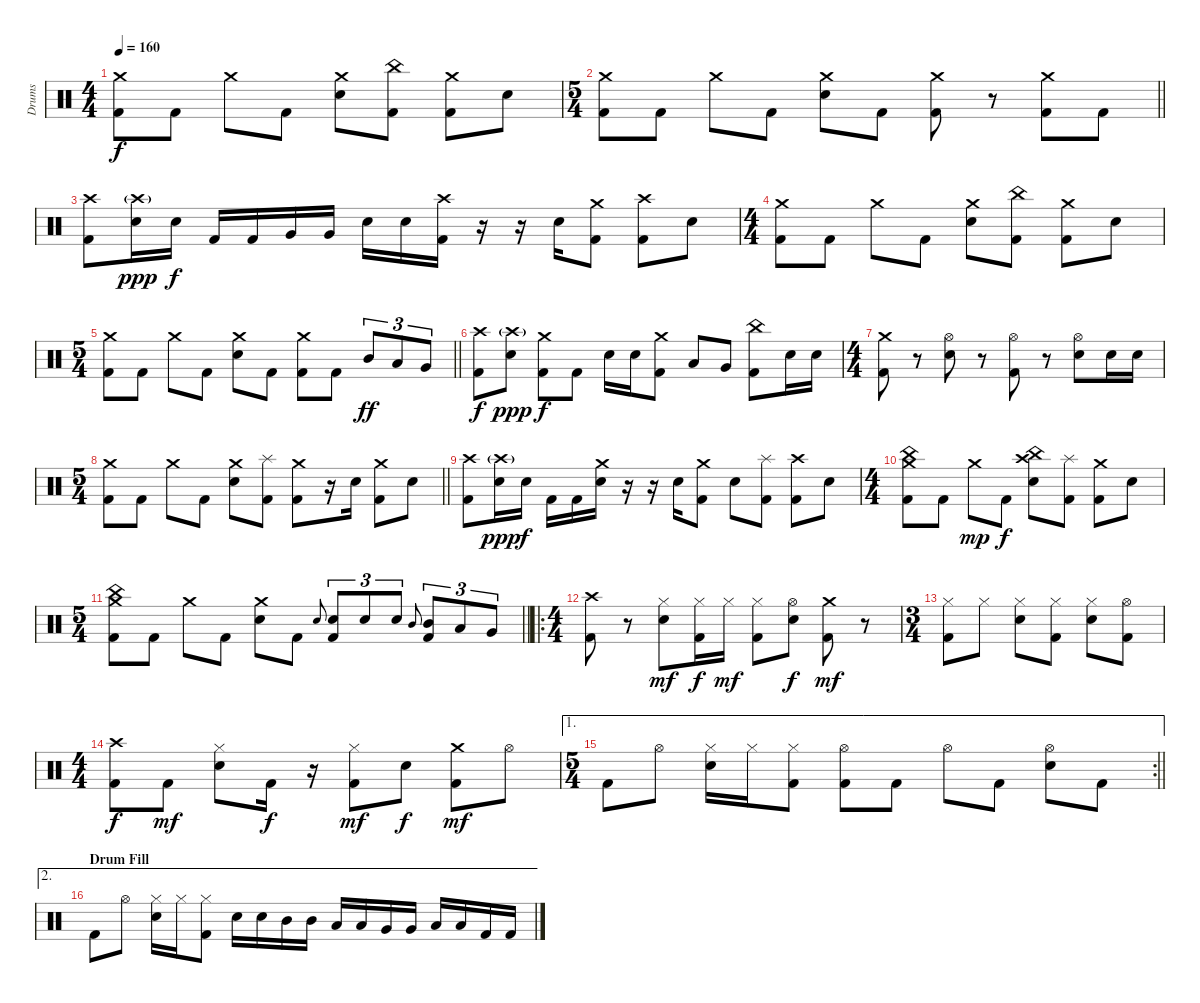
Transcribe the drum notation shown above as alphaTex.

\track ("Drums" "Drums") {instrument percussion}
\staff {score}
\articulation defaults
\ts (4 4)
\tempo 160
\clef neutral
\ks c
("Crash medium (hit)" "Kick (hit) 2").8{dy f} "Kick (hit) 2".8 "Crash medium (hit)".8 "Kick (hit) 2".8 ("Crash medium (hit)" "Electric Snare (hit)").8 ("China (hit)" "Kick (hit) 2").8 ("Crash medium (hit)" "Kick (hit) 2").8 "Electric Snare (hit)".8 |
\ts (5 4)
\barLineRight lightlight
("Crash medium (hit)" "Kick (hit) 2").8 "Kick (hit) 2".8 "Crash medium (hit)".8 "Kick (hit) 2".8 ("Crash medium (hit)" "Electric Snare (hit)").8 "Kick (hit) 2".8 ("Crash medium (hit)" "Kick (hit) 2").8 r.8 ("Crash medium (hit)" "Kick (hit) 2").8 "Kick (hit) 2".8 |
("Crash high (hit)" "Kick (hit) 2").8 ("Crash high (hit)"{g} "Electric Snare (hit)").16{dy ppp} "Electric Snare (hit)".16{dy f} "Kick (hit) 2".16 "Kick (hit) 2".16 "Very Low Tom (hit)".16 "Very Low Tom (hit)".16 "Electric Snare (hit)".16 "Electric Snare (hit)".16 ("Crash high (hit)" "Kick (hit) 2").16 r.16 r.16 "Electric Snare (hit)".16 ("Crash medium (hit)" "Kick (hit) 2").8 ("Crash high (hit)" "Kick (hit) 2").8 "Electric Snare (hit)".8 |
\ts (4 4)
("Crash medium (hit)" "Kick (hit) 2").8 "Kick (hit) 2".8 "Crash medium (hit)".8 "Kick (hit) 2".8 ("Crash medium (hit)" "Electric Snare (hit)").8 ("China (hit)" "Kick (hit) 2").8 ("Crash medium (hit)" "Kick (hit) 2").8 "Electric Snare (hit)".8 |
\ts (5 4)
\barLineRight lightlight
("Crash medium (hit)" "Kick (hit) 2").8 "Kick (hit) 2".8 "Crash medium (hit)".8 "Kick (hit) 2".8 ("Crash medium (hit)" "Electric Snare (hit)").8 "Kick (hit) 2".8 ("Crash medium (hit)" "Kick (hit) 2").8 "Kick (hit) 2".8 "Mid Tom (hit)".8{tu (3 2) dy ff} "Low Tom (hit)".8{tu (3 2)} "Very Low Tom (hit)".8{tu (3 2)} |
("Crash high (hit)" "Kick (hit) 2").8{dy f} ("Crash high (hit)"{g} "Electric Snare (hit)").8{dy ppp} ("Crash medium (hit)" "Kick (hit) 2").8{dy f} "Kick (hit) 2".8 "Electric Snare (hit)".16 "Electric Snare (hit)".16 ("Crash medium (hit)" "Kick (hit) 2").8 "Low Tom (hit)".8 "Very Low Tom (hit)".8 ("China (hit)" "Kick (hit) 2").8 "Electric Snare (hit)".16 "Electric Snare (hit)".16 |
\ts (4 4)
("Crash medium (hit)" "Kick (hit) 2").8 r.8 ("Hi-Hat (open)" "Electric Snare (hit)").8 r.8 ("Hi-Hat (open)" "Kick (hit) 2").8 r.8 ("Hi-Hat (open)" "Electric Snare (hit)").8 "Electric Snare (hit)".16 "Electric Snare (hit)".16 |
\ts (5 4)
\barLineRight lightlight
("Crash medium (hit)" "Kick (hit) 2").8 "Kick (hit) 2".8 "Crash medium (hit)".8 "Kick (hit) 2".8 ("Crash medium (hit)" "Electric Snare (hit)").8 ("Splash (hit)" "Kick (hit) 2").8 ("Crash medium (hit)" "Kick (hit) 2").8 r.16 "Electric Snare (hit)".16 ("Crash medium (hit)" "Kick (hit) 2").8 "Electric Snare (hit)".8 |
("Crash high (hit)" "Kick (hit) 2").8 ("Crash high (hit)"{g} "Electric Snare (hit)").16{dy ppp} "Electric Snare (hit)".16{dy f} "Kick (hit) 2".16 "Kick (hit) 2".16 ("Crash medium (hit)" "Electric Snare (hit)").16 r.16 r.16 "Electric Snare (hit)".16 ("Crash medium (hit)" "Kick (hit) 2").8 "Electric Snare (hit)".8 ("Splash (hit)" "Kick (hit) 2").8 ("Crash high (hit)" "Kick (hit) 2").8 "Electric Snare (hit)".8 |
\ts (4 4)
("Crash medium (hit)" "China (hit)" "Kick (hit) 2").8 "Kick (hit) 2".8 "Crash medium (hit)".8{dy mp} "Kick (hit) 2".8{dy f} ("Crash high (hit)" "China (hit)" "Electric Snare (hit)").8 ("Splash (hit)" "Kick (hit) 2").8 ("Crash medium (hit)" "Kick (hit) 2").8 "Electric Snare (hit)".8 |
\ts (5 4)
\barLineRight lightlight
("Crash medium (hit)" "China (hit)" "Kick (hit) 2").8 "Kick (hit) 2".8 "Crash medium (hit)".8 "Kick (hit) 2".8 ("Crash medium (hit)" "Electric Snare (hit)").8 "Kick (hit) 2".8 "Electric Snare (hit)".8{gr onbeat} ("Electric Snare (hit)" "Kick (hit) 2").8{tu (3 2)} "Electric Snare (hit)".8{tu (3 2)} "Electric Snare (hit)".8{tu (3 2)} "Mid Tom (hit)".8{gr onbeat} ("Mid Tom (hit)" "Kick (hit) 2").8{tu (3 2)} "Low Tom (hit)".8{tu (3 2)} "Very Low Tom (hit)".8{tu (3 2)} |
\ro
\ts (4 4)
("Crash high (hit)" "Kick (hit) 2").8 r.8 ("Hi-Hat (closed)" "Electric Snare (hit)").8{dy mf} ("Hi-Hat (closed)" "Kick (hit) 2").16{dy f} "Hi-Hat (closed)".16{dy mf} ("Hi-Hat (closed)" "Kick (hit) 2").8 ("Hi-Hat (open)" "Electric Snare (hit)").8{dy f} ("Crash medium (hit)" "Kick (hit) 2").8{dy mf} r.8 |
\ts (3 4)
("Hi-Hat (closed)" "Kick (hit) 2").8 "Hi-Hat (closed)".8 ("Hi-Hat (closed)" "Electric Snare (hit)").8 ("Hi-Hat (closed)" "Kick (hit) 2").8 ("Hi-Hat (closed)" "Electric Snare (hit)").8 ("Hi-Hat (open)" "Kick (hit) 2").8 |
\ts (4 4)
("Crash high (hit)" "Kick (hit) 2").8{dy f} "Kick (hit) 2".8{dy mf} ("Hi-Hat (closed)" "Electric Snare (hit)").8 "Kick (hit) 2".16{dy f} r.16 ("Hi-Hat (closed)" "Kick (hit) 2").8{dy mf} "Electric Snare (hit)".8{dy f} ("Crash medium (hit)" "Kick (hit) 2").8{dy mf} "Hi-Hat (open)".8 |
\ae 1
\rc 2
\ts (5 4)
\barLineRight lightlight "Kick (hit) 2".8 "Hi-Hat (open)".8
("Hi-Hat (closed)" "Electric Snare (hit)").16 "Hi-Hat (closed)".16 ("Hi-Hat (closed)" "Kick (hit) 2").8 ("Hi-Hat (open)" "Kick (hit) 2").8 "Kick (hit) 2".8 "Hi-Hat (open)".8 "Kick (hit) 2".8 ("Hi-Hat (open)" "Electric Snare (hit)").8 "Kick (hit) 2".8 |
\ae 2
\section ("" "Drum Fill")
"Kick (hit) 2".8 "Hi-Hat (open)".8 ("Hi-Hat (closed)" "Electric Snare (hit)").16 "Hi-Hat (closed)".16 ("Hi-Hat (closed)" "Kick (hit) 2").8 "Electric Snare (hit)".16 "Electric Snare (hit)".16 "Mid Tom (hit)".16 "Mid Tom (hit)".16 "Low Tom (hit)".16 "Low Tom (hit)".16 "Very Low Tom (hit)".16 "Very Low Tom (hit)".16 "Low Floor Tom (hit)".16 "Low Floor Tom (hit)".16 "Kick (hit) 2".16 "Kick (hit) 2".16
